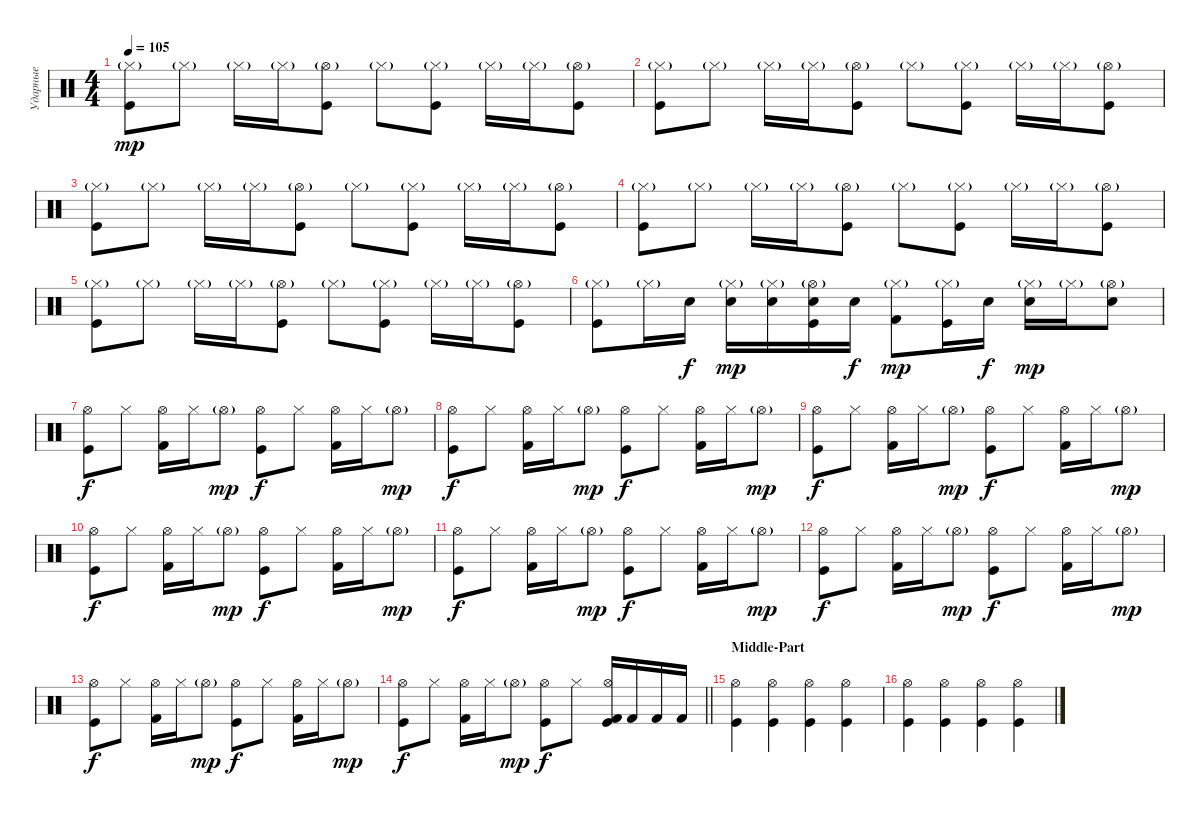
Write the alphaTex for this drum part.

\track ("Ударные" "Ударные") {instrument percussion}
\staff {score}
\articulation defaults
\ts (4 4)
\tempo 105
\clef neutral
\ks c
("Hi-Hat (closed)"{g} "Kick (hit)").8{dy mp} "Hi-Hat (closed)"{g}.8 "Hi-Hat (closed)"{g}.16 "Hi-Hat (closed)"{g}.16 ("Hi-Hat (open)"{g} "Kick (hit)").8 "Hi-Hat (closed)"{g}.8 ("Hi-Hat (closed)"{g} "Kick (hit)").8 "Hi-Hat (closed)"{g}.16 "Hi-Hat (closed)"{g}.16 ("Hi-Hat (open)"{g} "Kick (hit)").8 |
("Hi-Hat (closed)"{g} "Kick (hit)").8 "Hi-Hat (closed)"{g}.8 "Hi-Hat (closed)"{g}.16 "Hi-Hat (closed)"{g}.16 ("Hi-Hat (open)"{g} "Kick (hit)").8 "Hi-Hat (closed)"{g}.8 ("Hi-Hat (closed)"{g} "Kick (hit)").8 "Hi-Hat (closed)"{g}.16 "Hi-Hat (closed)"{g}.16 ("Hi-Hat (open)"{g} "Kick (hit)").8 |
("Hi-Hat (closed)"{g} "Kick (hit)").8 "Hi-Hat (closed)"{g}.8 "Hi-Hat (closed)"{g}.16 "Hi-Hat (closed)"{g}.16 ("Hi-Hat (open)"{g} "Kick (hit)").8 "Hi-Hat (closed)"{g}.8 ("Hi-Hat (closed)"{g} "Kick (hit)").8 "Hi-Hat (closed)"{g}.16 "Hi-Hat (closed)"{g}.16 ("Hi-Hat (open)"{g} "Kick (hit)").8 |
("Hi-Hat (closed)"{g} "Kick (hit)").8 "Hi-Hat (closed)"{g}.8 "Hi-Hat (closed)"{g}.16 "Hi-Hat (closed)"{g}.16 ("Hi-Hat (open)"{g} "Kick (hit)").8 "Hi-Hat (closed)"{g}.8 ("Hi-Hat (closed)"{g} "Kick (hit)").8 "Hi-Hat (closed)"{g}.16 "Hi-Hat (closed)"{g}.16 ("Hi-Hat (open)"{g} "Kick (hit)").8 |
("Hi-Hat (closed)"{g} "Kick (hit)").8 "Hi-Hat (closed)"{g}.8 "Hi-Hat (closed)"{g}.16 "Hi-Hat (closed)"{g}.16 ("Hi-Hat (open)"{g} "Kick (hit)").8 "Hi-Hat (closed)"{g}.8 ("Hi-Hat (closed)"{g} "Kick (hit)").8 "Hi-Hat (closed)"{g}.16 "Hi-Hat (closed)"{g}.16 ("Hi-Hat (open)"{g} "Kick (hit)").8 |
("Hi-Hat (closed)"{g} "Kick (hit)").8 "Hi-Hat (closed)"{g}.16 "Electric Snare (hit)".16{dy f} ("Snare (hit) 2" "Hi-Hat (closed)"{g}).16{dy mp} ("Snare (hit) 2" "Hi-Hat (closed)"{g}).16 ("Snare (hit) 2" "Hi-Hat (open)"{g} "Kick (hit)").16 "Snare (hit) 2".16{dy f} ("Kick (hit) 2" "Hi-Hat (closed)"{g}).8{dy mp} ("Hi-Hat (closed)"{g} "Kick (hit)").16 "Snare (hit) 2".16{dy f} ("Snare (hit) 2" "Hi-Hat (closed)"{g}).16{dy mp} "Hi-Hat (closed)"{g}.16 ("Snare (hit) 2" "Hi-Hat (open)"{g}).8 |
("Hi-Hat (open)" "Kick (hit)").8{dy f} "Hi-Hat (closed)".8 ("Hi-Hat (open)" "Kick (hit) 2").16 "Hi-Hat (closed)".16 "Hi-Hat (open)"{g}.8{dy mp} ("Hi-Hat (open)" "Kick (hit)").8{dy f} "Hi-Hat (closed)".8 ("Hi-Hat (open)" "Kick (hit) 2").16 "Hi-Hat (closed)".16 "Hi-Hat (open)"{g}.8{dy mp} |
("Hi-Hat (open)" "Kick (hit)").8{dy f} "Hi-Hat (closed)".8 ("Hi-Hat (open)" "Kick (hit) 2").16 "Hi-Hat (closed)".16 "Hi-Hat (open)"{g}.8{dy mp} ("Hi-Hat (open)" "Kick (hit)").8{dy f} "Hi-Hat (closed)".8 ("Hi-Hat (open)" "Kick (hit) 2").16 "Hi-Hat (closed)".16 "Hi-Hat (open)"{g}.8{dy mp} |
("Hi-Hat (open)" "Kick (hit)").8{dy f} "Hi-Hat (closed)".8 ("Hi-Hat (open)" "Kick (hit) 2").16 "Hi-Hat (closed)".16 "Hi-Hat (open)"{g}.8{dy mp} ("Hi-Hat (open)" "Kick (hit)").8{dy f} "Hi-Hat (closed)".8 ("Hi-Hat (open)" "Kick (hit) 2").16 "Hi-Hat (closed)".16 "Hi-Hat (open)"{g}.8{dy mp} |
("Hi-Hat (open)" "Kick (hit)").8{dy f} "Hi-Hat (closed)".8 ("Hi-Hat (open)" "Kick (hit) 2").16 "Hi-Hat (closed)".16 "Hi-Hat (open)"{g}.8{dy mp} ("Hi-Hat (open)" "Kick (hit)").8{dy f} "Hi-Hat (closed)".8 ("Hi-Hat (open)" "Kick (hit) 2").16 "Hi-Hat (closed)".16 "Hi-Hat (open)"{g}.8{dy mp} |
("Hi-Hat (open)" "Kick (hit)").8{dy f} "Hi-Hat (closed)".8 ("Hi-Hat (open)" "Kick (hit) 2").16 "Hi-Hat (closed)".16 "Hi-Hat (open)"{g}.8{dy mp} ("Hi-Hat (open)" "Kick (hit)").8{dy f} "Hi-Hat (closed)".8 ("Hi-Hat (open)" "Kick (hit) 2").16 "Hi-Hat (closed)".16 "Hi-Hat (open)"{g}.8{dy mp} |
("Hi-Hat (open)" "Kick (hit)").8{dy f} "Hi-Hat (closed)".8 ("Hi-Hat (open)" "Kick (hit) 2").16 "Hi-Hat (closed)".16 "Hi-Hat (open)"{g}.8{dy mp} ("Hi-Hat (open)" "Kick (hit)").8{dy f} "Hi-Hat (closed)".8 ("Hi-Hat (open)" "Kick (hit) 2").16 "Hi-Hat (closed)".16 "Hi-Hat (open)"{g}.8{dy mp} |
("Hi-Hat (open)" "Kick (hit)").8{dy f} "Hi-Hat (closed)".8 ("Hi-Hat (open)" "Kick (hit) 2").16 "Hi-Hat (closed)".16 "Hi-Hat (open)"{g}.8{dy mp} ("Hi-Hat (open)" "Kick (hit)").8{dy f} "Hi-Hat (closed)".8 ("Hi-Hat (open)" "Kick (hit) 2").16 "Hi-Hat (closed)".16 "Hi-Hat (open)"{g}.8{dy mp} |
\barLineRight lightlight
("Hi-Hat (open)" "Kick (hit)").8{dy f} "Hi-Hat (closed)".8 ("Hi-Hat (open)" "Kick (hit) 2").16 "Hi-Hat (closed)".16 "Hi-Hat (open)"{g}.8{dy mp} ("Hi-Hat (open)" "Kick (hit)").8{dy f} "Hi-Hat (closed)".8 ("Hi-Hat (open)" "Kick (hit) 2" "Kick (hit)").16 "Kick (hit) 2".16 "Kick (hit) 2".16 "Kick (hit) 2".16 |
\section ("" "Middle-Part")
("Hi-Hat (open)" "Kick (hit)").4 ("Hi-Hat (open)" "Kick (hit)").4 ("Hi-Hat (open)" "Kick (hit)").4 ("Hi-Hat (open)" "Kick (hit)").4 |
("Hi-Hat (open)" "Kick (hit)").4 ("Hi-Hat (open)" "Kick (hit)").4 ("Hi-Hat (open)" "Kick (hit)").4 ("Hi-Hat (open)" "Kick (hit)").4
